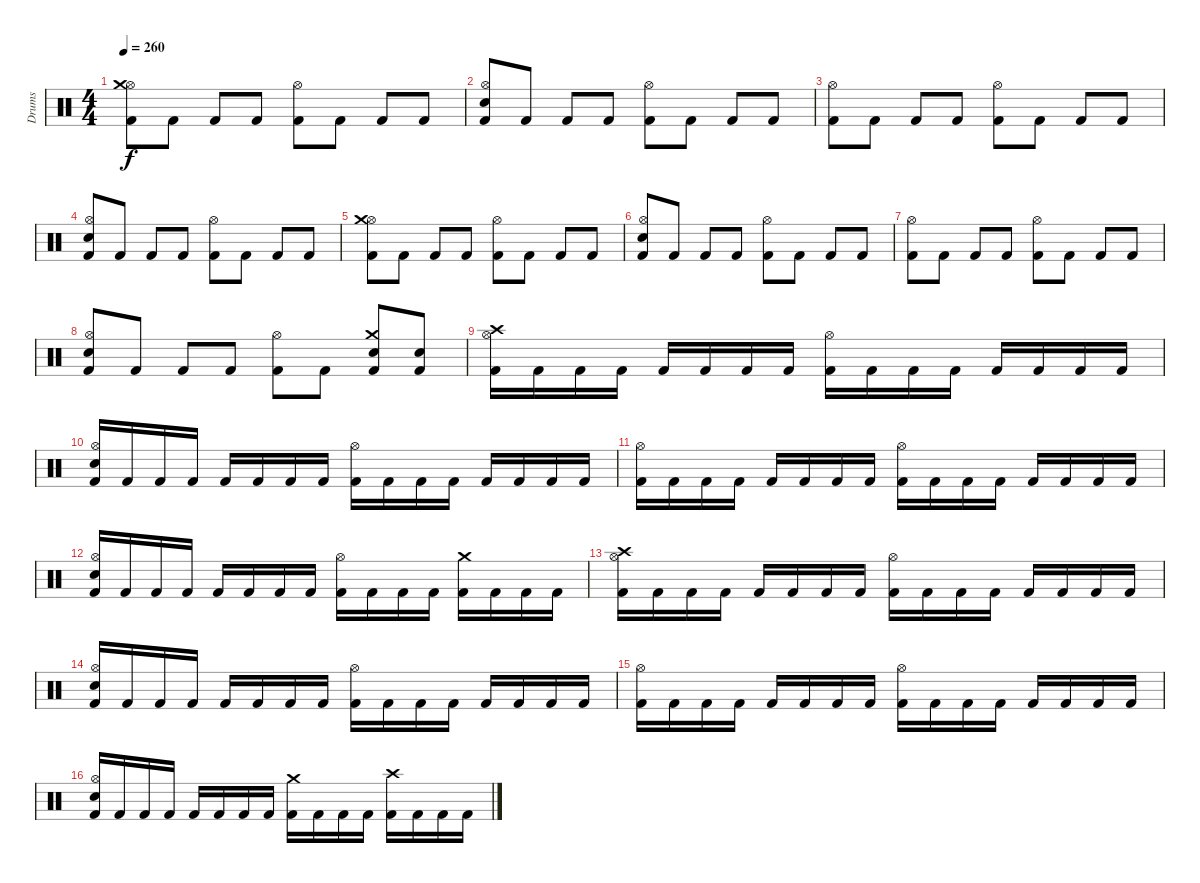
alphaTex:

\track ("Drums" "Drums") {instrument percussion}
\staff {score}
\articulation defaults
\ts (4 4)
\tempo 260
\clef neutral
\ks c
("Kick (hit) 2" "Hi-Hat (open)" "Crash medium (hit)").8{dy f} "Kick (hit) 2".8 "Kick (hit) 2".8 "Kick (hit) 2".8 ("Kick (hit) 2" "Hi-Hat (open)").8 "Kick (hit) 2".8 "Kick (hit) 2".8 "Kick (hit) 2".8 |
("Kick (hit) 2" "Electric Snare (hit)" "Hi-Hat (open)").8 "Kick (hit) 2".8 "Kick (hit) 2".8 "Kick (hit) 2".8 ("Kick (hit) 2" "Hi-Hat (open)").8 "Kick (hit) 2".8 "Kick (hit) 2".8 "Kick (hit) 2".8 |
("Kick (hit) 2" "Hi-Hat (open)").8 "Kick (hit) 2".8 "Kick (hit) 2".8 "Kick (hit) 2".8 ("Kick (hit) 2" "Hi-Hat (open)").8 "Kick (hit) 2".8 "Kick (hit) 2".8 "Kick (hit) 2".8 |
("Kick (hit) 2" "Electric Snare (hit)" "Hi-Hat (open)").8 "Kick (hit) 2".8 "Kick (hit) 2".8 "Kick (hit) 2".8 ("Kick (hit) 2" "Hi-Hat (open)").8 "Kick (hit) 2".8 "Kick (hit) 2".8 "Kick (hit) 2".8 |
("Kick (hit) 2" "Hi-Hat (open)" "Crash medium (hit)").8 "Kick (hit) 2".8 "Kick (hit) 2".8 "Kick (hit) 2".8 ("Kick (hit) 2" "Hi-Hat (open)").8 "Kick (hit) 2".8 "Kick (hit) 2".8 "Kick (hit) 2".8 |
("Kick (hit) 2" "Electric Snare (hit)" "Hi-Hat (open)").8 "Kick (hit) 2".8 "Kick (hit) 2".8 "Kick (hit) 2".8 ("Kick (hit) 2" "Hi-Hat (open)").8 "Kick (hit) 2".8 "Kick (hit) 2".8 "Kick (hit) 2".8 |
("Kick (hit) 2" "Hi-Hat (open)").8 "Kick (hit) 2".8 "Kick (hit) 2".8 "Kick (hit) 2".8 ("Kick (hit) 2" "Hi-Hat (open)").8 "Kick (hit) 2".8 "Kick (hit) 2".8 "Kick (hit) 2".8 |
("Kick (hit) 2" "Electric Snare (hit)" "Hi-Hat (open)").8 "Kick (hit) 2".8 "Kick (hit) 2".8 "Kick (hit) 2".8 ("Kick (hit) 2" "Hi-Hat (open)").8 "Kick (hit) 2".8 ("Kick (hit) 2" "Electric Snare (hit)" "Crash medium (hit)").8 ("Kick (hit) 2" "Electric Snare (hit)").8 |
("Kick (hit) 2" "Hi-Hat (open)" "Crash high (hit)").16 "Kick (hit) 2".16 "Kick (hit) 2".16 "Kick (hit) 2".16 "Kick (hit) 2".16 "Kick (hit) 2".16 "Kick (hit) 2".16 "Kick (hit) 2".16 ("Kick (hit) 2" "Hi-Hat (open)").16 "Kick (hit) 2".16 "Kick (hit) 2".16 "Kick (hit) 2".16 "Kick (hit) 2".16 "Kick (hit) 2".16 "Kick (hit) 2".16 "Kick (hit) 2".16 |
("Kick (hit) 2" "Electric Snare (hit)" "Hi-Hat (open)").16 "Kick (hit) 2".16 "Kick (hit) 2".16 "Kick (hit) 2".16 "Kick (hit) 2".16 "Kick (hit) 2".16 "Kick (hit) 2".16 "Kick (hit) 2".16 ("Kick (hit) 2" "Hi-Hat (open)").16 "Kick (hit) 2".16 "Kick (hit) 2".16 "Kick (hit) 2".16 "Kick (hit) 2".16 "Kick (hit) 2".16 "Kick (hit) 2".16 "Kick (hit) 2".16 |
("Kick (hit) 2" "Hi-Hat (open)").16 "Kick (hit) 2".16 "Kick (hit) 2".16 "Kick (hit) 2".16 "Kick (hit) 2".16 "Kick (hit) 2".16 "Kick (hit) 2".16 "Kick (hit) 2".16 ("Kick (hit) 2" "Hi-Hat (open)").16 "Kick (hit) 2".16 "Kick (hit) 2".16 "Kick (hit) 2".16 "Kick (hit) 2".16 "Kick (hit) 2".16 "Kick (hit) 2".16 "Kick (hit) 2".16 |
("Kick (hit) 2" "Electric Snare (hit)" "Hi-Hat (open)").16 "Kick (hit) 2".16 "Kick (hit) 2".16 "Kick (hit) 2".16 "Kick (hit) 2".16 "Kick (hit) 2".16 "Kick (hit) 2".16 "Kick (hit) 2".16 ("Kick (hit) 2" "Hi-Hat (open)").16 "Kick (hit) 2".16 "Kick (hit) 2".16 "Kick (hit) 2".16 ("Kick (hit) 2" "Crash medium (hit)").16 "Kick (hit) 2".16 "Kick (hit) 2".16 "Kick (hit) 2".16 |
("Kick (hit) 2" "Hi-Hat (open)" "Crash high (hit)").16 "Kick (hit) 2".16 "Kick (hit) 2".16 "Kick (hit) 2".16 "Kick (hit) 2".16 "Kick (hit) 2".16 "Kick (hit) 2".16 "Kick (hit) 2".16 ("Kick (hit) 2" "Hi-Hat (open)").16 "Kick (hit) 2".16 "Kick (hit) 2".16 "Kick (hit) 2".16 "Kick (hit) 2".16 "Kick (hit) 2".16 "Kick (hit) 2".16 "Kick (hit) 2".16 |
("Kick (hit) 2" "Electric Snare (hit)" "Hi-Hat (open)").16 "Kick (hit) 2".16 "Kick (hit) 2".16 "Kick (hit) 2".16 "Kick (hit) 2".16 "Kick (hit) 2".16 "Kick (hit) 2".16 "Kick (hit) 2".16 ("Kick (hit) 2" "Hi-Hat (open)").16 "Kick (hit) 2".16 "Kick (hit) 2".16 "Kick (hit) 2".16 "Kick (hit) 2".16 "Kick (hit) 2".16 "Kick (hit) 2".16 "Kick (hit) 2".16 |
("Kick (hit) 2" "Hi-Hat (open)").16 "Kick (hit) 2".16 "Kick (hit) 2".16 "Kick (hit) 2".16 "Kick (hit) 2".16 "Kick (hit) 2".16 "Kick (hit) 2".16 "Kick (hit) 2".16 ("Kick (hit) 2" "Hi-Hat (open)").16 "Kick (hit) 2".16 "Kick (hit) 2".16 "Kick (hit) 2".16 "Kick (hit) 2".16 "Kick (hit) 2".16 "Kick (hit) 2".16 "Kick (hit) 2".16 |
("Kick (hit) 2" "Electric Snare (hit)" "Hi-Hat (open)").16 "Kick (hit) 2".16 "Kick (hit) 2".16 "Kick (hit) 2".16 "Kick (hit) 2".16 "Kick (hit) 2".16 "Kick (hit) 2".16 "Kick (hit) 2".16 ("Kick (hit) 2" "Crash medium (hit)").16 "Kick (hit) 2".16 "Kick (hit) 2".16 "Kick (hit) 2".16 ("Kick (hit) 2" "Crash high (hit)").16 "Kick (hit) 2".16 "Kick (hit) 2".16 "Kick (hit) 2".16
